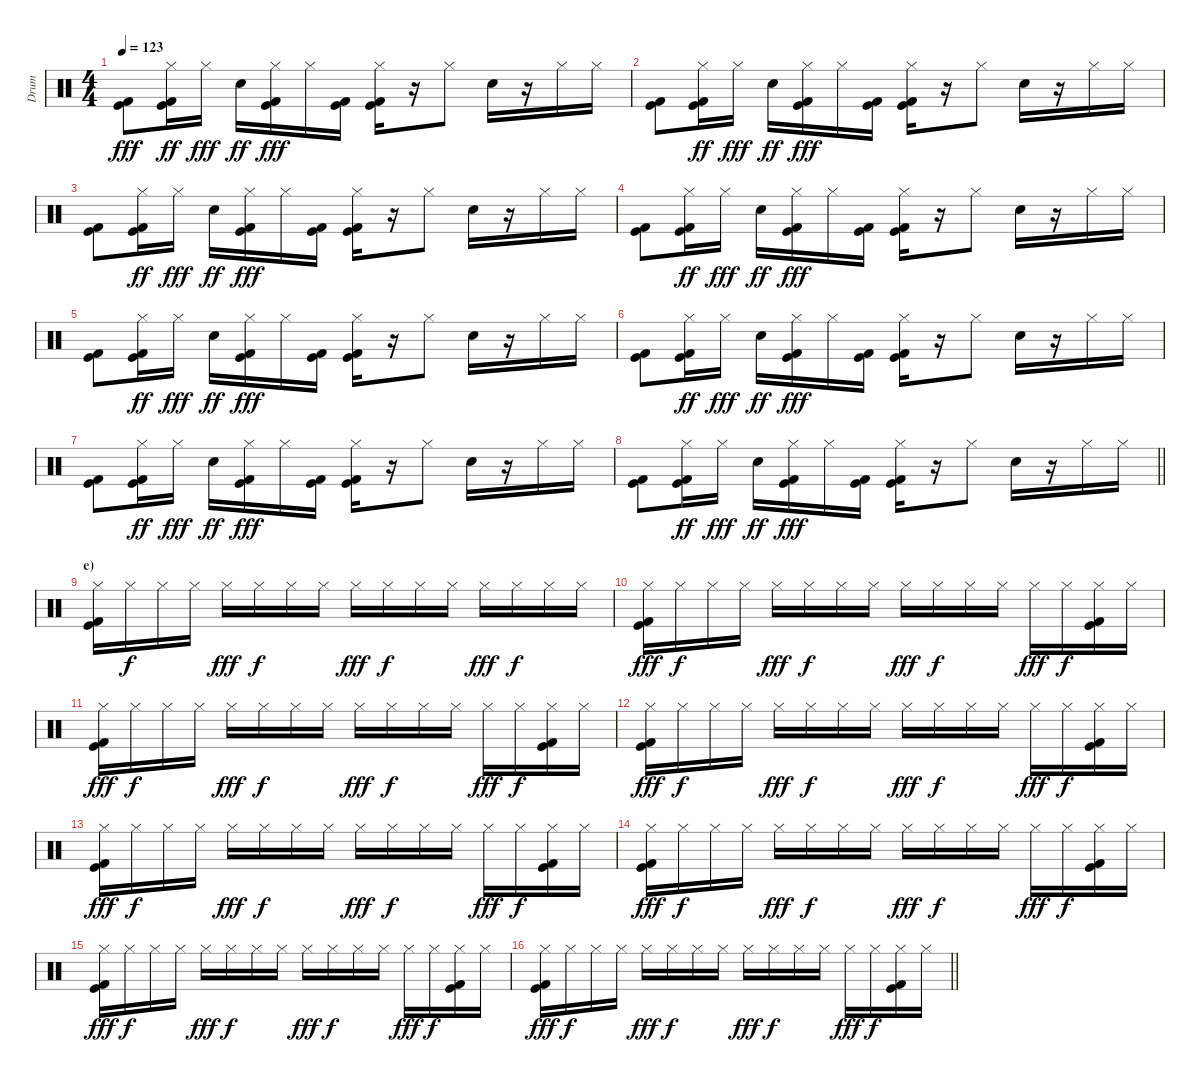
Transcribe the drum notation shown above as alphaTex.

\track ("Drum" "Drum") {instrument percussion}
\staff {score}
\articulation defaults
\ts (4 4)
\tempo 123
\clef neutral
\ks c
("Kick (hit)" "Kick (hit) 2").8{dy fff} ("Hi-Hat (closed)" "Kick (hit)" "Kick (hit) 2").16{dy ff} "Hi-Hat (closed)".16{dy fff} "Electric Snare (hit)".16{dy ff} ("Hi-Hat (closed)" "Kick (hit)" "Kick (hit) 2").16{dy fff} "Hi-Hat (closed)".16 ("Kick (hit)" "Kick (hit) 2").16 ("Hi-Hat (closed)" "Kick (hit)" "Kick (hit) 2").16 r.16 "Hi-Hat (closed)".8 "Electric Snare (hit)".16 r.16 "Hi-Hat (closed)".16 "Hi-Hat (closed)".16 |
("Kick (hit)" "Kick (hit) 2").8 ("Hi-Hat (closed)" "Kick (hit)" "Kick (hit) 2").16{dy ff} "Hi-Hat (closed)".16{dy fff} "Electric Snare (hit)".16{dy ff} ("Hi-Hat (closed)" "Kick (hit)" "Kick (hit) 2").16{dy fff} "Hi-Hat (closed)".16 ("Kick (hit)" "Kick (hit) 2").16 ("Hi-Hat (closed)" "Kick (hit)" "Kick (hit) 2").16 r.16 "Hi-Hat (closed)".8 "Electric Snare (hit)".16 r.16 "Hi-Hat (closed)".16 "Hi-Hat (closed)".16 |
("Kick (hit)" "Kick (hit) 2").8 ("Hi-Hat (closed)" "Kick (hit)" "Kick (hit) 2").16{dy ff} "Hi-Hat (closed)".16{dy fff} "Electric Snare (hit)".16{dy ff} ("Hi-Hat (closed)" "Kick (hit)" "Kick (hit) 2").16{dy fff} "Hi-Hat (closed)".16 ("Kick (hit)" "Kick (hit) 2").16 ("Hi-Hat (closed)" "Kick (hit)" "Kick (hit) 2").16 r.16 "Hi-Hat (closed)".8 "Electric Snare (hit)".16 r.16 "Hi-Hat (closed)".16 "Hi-Hat (closed)".16 |
("Kick (hit)" "Kick (hit) 2").8 ("Hi-Hat (closed)" "Kick (hit)" "Kick (hit) 2").16{dy ff} "Hi-Hat (closed)".16{dy fff} "Electric Snare (hit)".16{dy ff} ("Hi-Hat (closed)" "Kick (hit)" "Kick (hit) 2").16{dy fff} "Hi-Hat (closed)".16 ("Kick (hit)" "Kick (hit) 2").16 ("Hi-Hat (closed)" "Kick (hit)" "Kick (hit) 2").16 r.16 "Hi-Hat (closed)".8 "Electric Snare (hit)".16 r.16 "Hi-Hat (closed)".16 "Hi-Hat (closed)".16 |
("Kick (hit)" "Kick (hit) 2").8 ("Hi-Hat (closed)" "Kick (hit)" "Kick (hit) 2").16{dy ff} "Hi-Hat (closed)".16{dy fff} "Electric Snare (hit)".16{dy ff} ("Hi-Hat (closed)" "Kick (hit)" "Kick (hit) 2").16{dy fff} "Hi-Hat (closed)".16 ("Kick (hit)" "Kick (hit) 2").16 ("Hi-Hat (closed)" "Kick (hit)" "Kick (hit) 2").16 r.16 "Hi-Hat (closed)".8 "Electric Snare (hit)".16 r.16 "Hi-Hat (closed)".16 "Hi-Hat (closed)".16 |
("Kick (hit)" "Kick (hit) 2").8 ("Hi-Hat (closed)" "Kick (hit)" "Kick (hit) 2").16{dy ff} "Hi-Hat (closed)".16{dy fff} "Electric Snare (hit)".16{dy ff} ("Hi-Hat (closed)" "Kick (hit)" "Kick (hit) 2").16{dy fff} "Hi-Hat (closed)".16 ("Kick (hit)" "Kick (hit) 2").16 ("Hi-Hat (closed)" "Kick (hit)" "Kick (hit) 2").16 r.16 "Hi-Hat (closed)".8 "Electric Snare (hit)".16 r.16 "Hi-Hat (closed)".16 "Hi-Hat (closed)".16 |
("Kick (hit)" "Kick (hit) 2").8 ("Hi-Hat (closed)" "Kick (hit)" "Kick (hit) 2").16{dy ff} "Hi-Hat (closed)".16{dy fff} "Electric Snare (hit)".16{dy ff} ("Hi-Hat (closed)" "Kick (hit)" "Kick (hit) 2").16{dy fff} "Hi-Hat (closed)".16 ("Kick (hit)" "Kick (hit) 2").16 ("Hi-Hat (closed)" "Kick (hit)" "Kick (hit) 2").16 r.16 "Hi-Hat (closed)".8 "Electric Snare (hit)".16 r.16 "Hi-Hat (closed)".16 "Hi-Hat (closed)".16 |
\barLineRight lightlight
("Kick (hit)" "Kick (hit) 2").8 ("Hi-Hat (closed)" "Kick (hit)" "Kick (hit) 2").16{dy ff} "Hi-Hat (closed)".16{dy fff} "Electric Snare (hit)".16{dy ff} ("Hi-Hat (closed)" "Kick (hit)" "Kick (hit) 2").16{dy fff} "Hi-Hat (closed)".16 ("Kick (hit)" "Kick (hit) 2").16 ("Hi-Hat (closed)" "Kick (hit)" "Kick (hit) 2").16 r.16 "Hi-Hat (closed)".8 "Electric Snare (hit)".16 r.16 "Hi-Hat (closed)".16 "Hi-Hat (closed)".16 |
\section ("" "e)")
("Hi-Hat (closed)" "Kick (hit)" "Kick (hit) 2").16 "Hi-Hat (closed)".16{dy f} "Hi-Hat (closed)".16 "Hi-Hat (closed)".16 "Hi-Hat (closed)".16{dy fff} "Hi-Hat (closed)".16{dy f} "Hi-Hat (closed)".16 "Hi-Hat (closed)".16 "Hi-Hat (closed)".16{dy fff} "Hi-Hat (closed)".16{dy f} "Hi-Hat (closed)".16 "Hi-Hat (closed)".16 "Hi-Hat (closed)".16{dy fff} "Hi-Hat (closed)".16{dy f} "Hi-Hat (closed)".16 "Hi-Hat (closed)".16 |
("Hi-Hat (closed)" "Kick (hit)" "Kick (hit) 2").16{dy fff} "Hi-Hat (closed)".16{dy f} "Hi-Hat (closed)".16 "Hi-Hat (closed)".16 "Hi-Hat (closed)".16{dy fff} "Hi-Hat (closed)".16{dy f} "Hi-Hat (closed)".16 "Hi-Hat (closed)".16 "Hi-Hat (closed)".16{dy fff} "Hi-Hat (closed)".16{dy f} "Hi-Hat (closed)".16 "Hi-Hat (closed)".16 "Hi-Hat (closed)".16{dy fff} "Hi-Hat (closed)".16{dy f} ("Hi-Hat (closed)" "Kick (hit)" "Kick (hit) 2").16 "Hi-Hat (closed)".16 |
("Hi-Hat (closed)" "Kick (hit)" "Kick (hit) 2").16{dy fff} "Hi-Hat (closed)".16{dy f} "Hi-Hat (closed)".16 "Hi-Hat (closed)".16 "Hi-Hat (closed)".16{dy fff} "Hi-Hat (closed)".16{dy f} "Hi-Hat (closed)".16 "Hi-Hat (closed)".16 "Hi-Hat (closed)".16{dy fff} "Hi-Hat (closed)".16{dy f} "Hi-Hat (closed)".16 "Hi-Hat (closed)".16 "Hi-Hat (closed)".16{dy fff} "Hi-Hat (closed)".16{dy f} ("Hi-Hat (closed)" "Kick (hit)" "Kick (hit) 2").16 "Hi-Hat (closed)".16 |
("Hi-Hat (closed)" "Kick (hit)" "Kick (hit) 2").16{dy fff} "Hi-Hat (closed)".16{dy f} "Hi-Hat (closed)".16 "Hi-Hat (closed)".16 "Hi-Hat (closed)".16{dy fff} "Hi-Hat (closed)".16{dy f} "Hi-Hat (closed)".16 "Hi-Hat (closed)".16 "Hi-Hat (closed)".16{dy fff} "Hi-Hat (closed)".16{dy f} "Hi-Hat (closed)".16 "Hi-Hat (closed)".16 "Hi-Hat (closed)".16{dy fff} "Hi-Hat (closed)".16{dy f} ("Hi-Hat (closed)" "Kick (hit)" "Kick (hit) 2").16 "Hi-Hat (closed)".16 |
("Hi-Hat (closed)" "Kick (hit)" "Kick (hit) 2").16{dy fff} "Hi-Hat (closed)".16{dy f} "Hi-Hat (closed)".16 "Hi-Hat (closed)".16 "Hi-Hat (closed)".16{dy fff} "Hi-Hat (closed)".16{dy f} "Hi-Hat (closed)".16 "Hi-Hat (closed)".16 "Hi-Hat (closed)".16{dy fff} "Hi-Hat (closed)".16{dy f} "Hi-Hat (closed)".16 "Hi-Hat (closed)".16 "Hi-Hat (closed)".16{dy fff} "Hi-Hat (closed)".16{dy f} ("Hi-Hat (closed)" "Kick (hit)" "Kick (hit) 2").16 "Hi-Hat (closed)".16 |
("Hi-Hat (closed)" "Kick (hit)" "Kick (hit) 2").16{dy fff} "Hi-Hat (closed)".16{dy f} "Hi-Hat (closed)".16 "Hi-Hat (closed)".16 "Hi-Hat (closed)".16{dy fff} "Hi-Hat (closed)".16{dy f} "Hi-Hat (closed)".16 "Hi-Hat (closed)".16 "Hi-Hat (closed)".16{dy fff} "Hi-Hat (closed)".16{dy f} "Hi-Hat (closed)".16 "Hi-Hat (closed)".16 "Hi-Hat (closed)".16{dy fff} "Hi-Hat (closed)".16{dy f} ("Hi-Hat (closed)" "Kick (hit)" "Kick (hit) 2").16 "Hi-Hat (closed)".16 |
("Hi-Hat (closed)" "Kick (hit)" "Kick (hit) 2").16{dy fff} "Hi-Hat (closed)".16{dy f} "Hi-Hat (closed)".16 "Hi-Hat (closed)".16 "Hi-Hat (closed)".16{dy fff} "Hi-Hat (closed)".16{dy f} "Hi-Hat (closed)".16 "Hi-Hat (closed)".16 "Hi-Hat (closed)".16{dy fff} "Hi-Hat (closed)".16{dy f} "Hi-Hat (closed)".16 "Hi-Hat (closed)".16 "Hi-Hat (closed)".16{dy fff} "Hi-Hat (closed)".16{dy f} ("Hi-Hat (closed)" "Kick (hit)" "Kick (hit) 2").16 "Hi-Hat (closed)".16 |
\barLineRight lightlight
("Hi-Hat (closed)" "Kick (hit)" "Kick (hit) 2").16{dy fff} "Hi-Hat (closed)".16{dy f} "Hi-Hat (closed)".16 "Hi-Hat (closed)".16 "Hi-Hat (closed)".16{dy fff} "Hi-Hat (closed)".16{dy f} "Hi-Hat (closed)".16 "Hi-Hat (closed)".16 "Hi-Hat (closed)".16{dy fff} "Hi-Hat (closed)".16{dy f} "Hi-Hat (closed)".16 "Hi-Hat (closed)".16 "Hi-Hat (closed)".16{dy fff} "Hi-Hat (closed)".16{dy f} ("Hi-Hat (closed)" "Kick (hit)" "Kick (hit) 2").16 "Hi-Hat (closed)".16
